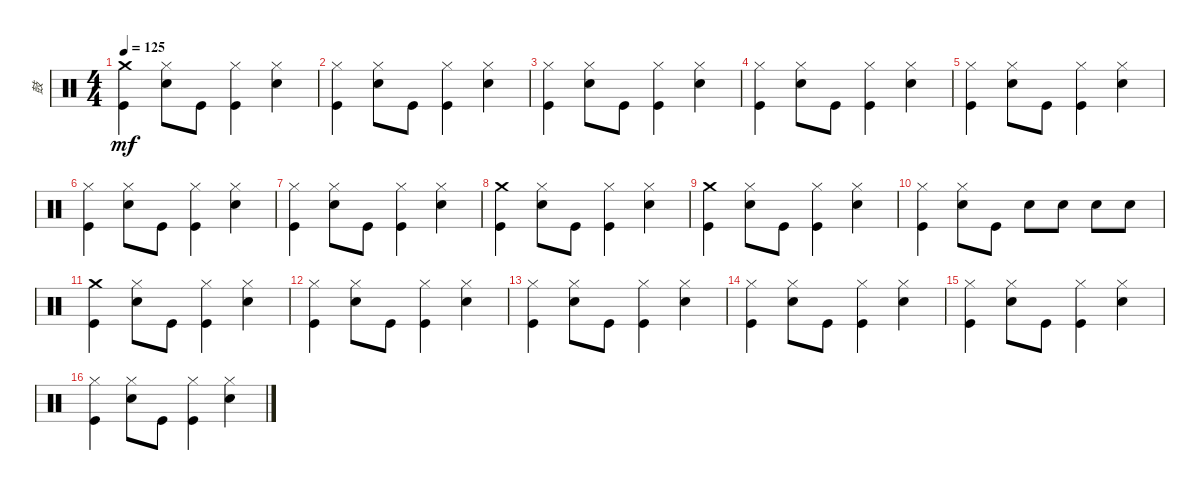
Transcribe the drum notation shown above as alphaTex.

\track ("鼓" "鼓") {instrument percussion}
\staff {score}
\articulation defaults
\ts (4 4)
\tempo 125
\clef neutral
\ks c
("Kick (hit)" "Crash medium (hit)").4{dy mf} ("Snare (hit) 2" "Hi-Hat (closed)").8 "Kick (hit)".8 ("Kick (hit)" "Hi-Hat (closed)").4 ("Snare (hit) 2" "Hi-Hat (closed)").4 |
("Kick (hit)" "Hi-Hat (closed)").4 ("Snare (hit) 2" "Hi-Hat (closed)").8 "Kick (hit)".8 ("Kick (hit)" "Hi-Hat (closed)").4 ("Snare (hit) 2" "Hi-Hat (closed)").4 |
("Kick (hit)" "Hi-Hat (closed)").4 ("Snare (hit) 2" "Hi-Hat (closed)").8 "Kick (hit)".8 ("Kick (hit)" "Hi-Hat (closed)").4 ("Snare (hit) 2" "Hi-Hat (closed)").4 |
("Kick (hit)" "Hi-Hat (closed)").4 ("Snare (hit) 2" "Hi-Hat (closed)").8 "Kick (hit)".8 ("Kick (hit)" "Hi-Hat (closed)").4 ("Snare (hit) 2" "Hi-Hat (closed)").4 |
("Kick (hit)" "Hi-Hat (closed)").4 ("Snare (hit) 2" "Hi-Hat (closed)").8 "Kick (hit)".8 ("Kick (hit)" "Hi-Hat (closed)").4 ("Snare (hit) 2" "Hi-Hat (closed)").4 |
("Kick (hit)" "Hi-Hat (closed)").4 ("Snare (hit) 2" "Hi-Hat (closed)").8 "Kick (hit)".8 ("Kick (hit)" "Hi-Hat (closed)").4 ("Snare (hit) 2" "Hi-Hat (closed)").4 |
("Kick (hit)" "Hi-Hat (closed)").4 ("Snare (hit) 2" "Hi-Hat (closed)").8 "Kick (hit)".8 ("Kick (hit)" "Hi-Hat (closed)").4 ("Snare (hit) 2" "Hi-Hat (closed)").4 |
("Kick (hit)" "Crash medium (hit)").4 ("Snare (hit) 2" "Hi-Hat (closed)").8 "Kick (hit)".8 ("Kick (hit)" "Hi-Hat (closed)").4 ("Snare (hit) 2" "Hi-Hat (closed)").4 |
("Kick (hit)" "Crash medium (hit)").4 ("Snare (hit) 2" "Hi-Hat (closed)").8 "Kick (hit)".8 ("Kick (hit)" "Hi-Hat (closed)").4 ("Snare (hit) 2" "Hi-Hat (closed)").4 |
("Kick (hit)" "Hi-Hat (closed)").4 ("Snare (hit) 2" "Hi-Hat (closed)").8 "Kick (hit)".8 "Snare (hit) 2".8 "Snare (hit) 2".8 "Snare (hit) 2".8 "Snare (hit) 2".8 |
("Kick (hit)" "Crash medium (hit)").4 ("Snare (hit) 2" "Hi-Hat (closed)").8 "Kick (hit)".8 ("Kick (hit)" "Hi-Hat (closed)").4 ("Snare (hit) 2" "Hi-Hat (closed)").4 |
("Kick (hit)" "Hi-Hat (closed)").4 ("Snare (hit) 2" "Hi-Hat (closed)").8 "Kick (hit)".8 ("Kick (hit)" "Hi-Hat (closed)").4 ("Snare (hit) 2" "Hi-Hat (closed)").4 |
("Kick (hit)" "Hi-Hat (closed)").4 ("Snare (hit) 2" "Hi-Hat (closed)").8 "Kick (hit)".8 ("Kick (hit)" "Hi-Hat (closed)").4 ("Snare (hit) 2" "Hi-Hat (closed)").4 |
("Kick (hit)" "Hi-Hat (closed)").4 ("Snare (hit) 2" "Hi-Hat (closed)").8 "Kick (hit)".8 ("Kick (hit)" "Hi-Hat (closed)").4 ("Snare (hit) 2" "Hi-Hat (closed)").4 |
("Kick (hit)" "Hi-Hat (closed)").4 ("Snare (hit) 2" "Hi-Hat (closed)").8 "Kick (hit)".8 ("Kick (hit)" "Hi-Hat (closed)").4 ("Snare (hit) 2" "Hi-Hat (closed)").4 |
("Kick (hit)" "Hi-Hat (closed)").4 ("Snare (hit) 2" "Hi-Hat (closed)").8 "Kick (hit)".8 ("Kick (hit)" "Hi-Hat (closed)").4 ("Snare (hit) 2" "Hi-Hat (closed)").4
